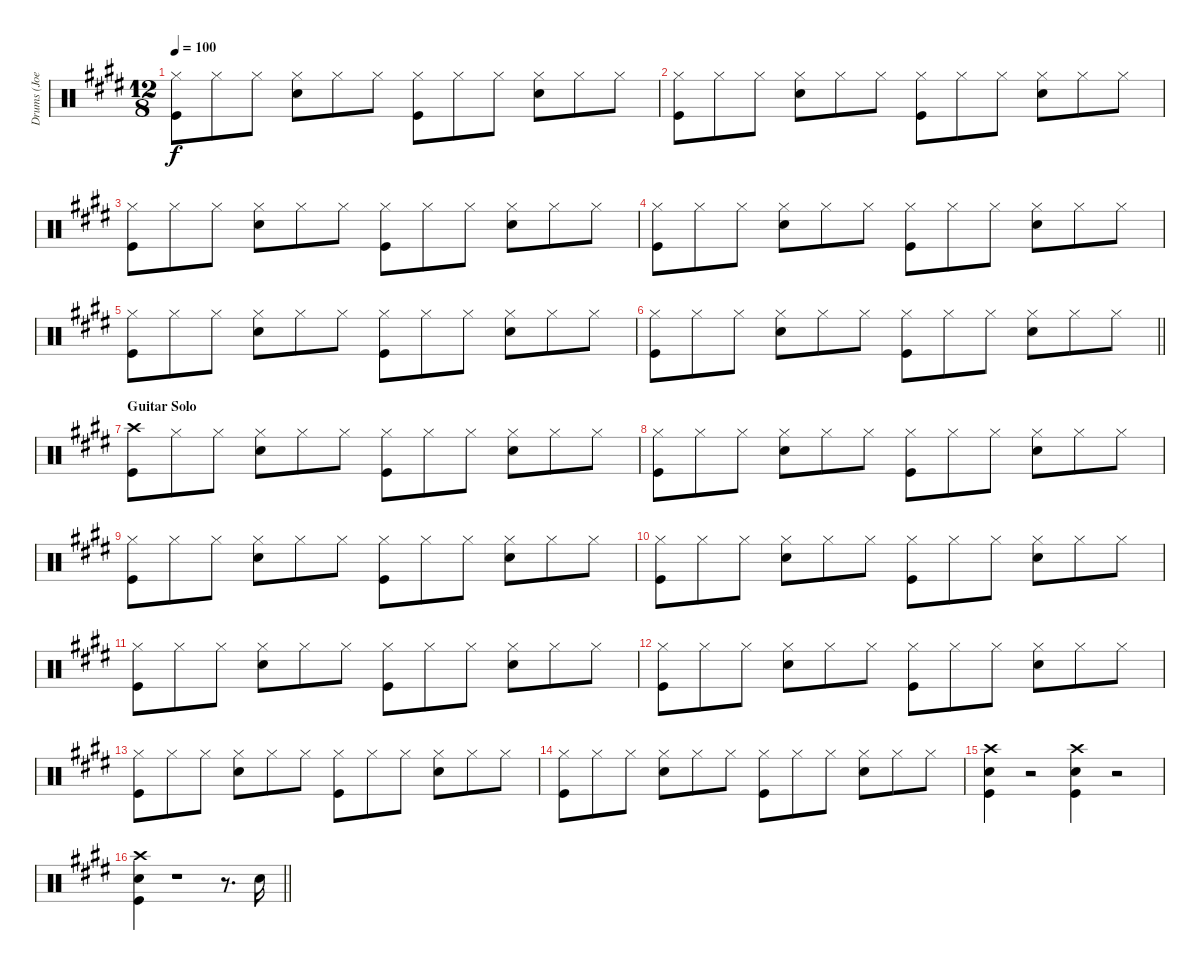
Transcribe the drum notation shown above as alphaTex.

\track ("Drums (Joey Kramer)" "Drums (Joe") {instrument percussion}
\staff {score}
\articulation defaults
\ts (12 8)
\tempo 100
\clef neutral
\ks c#minor
("Hi-Hat (closed)" "Kick (hit)").8{dy f} "Hi-Hat (closed)".8 "Hi-Hat (closed)".8 ("Hi-Hat (closed)" "Electric Snare (hit)").8 "Hi-Hat (closed)".8 "Hi-Hat (closed)".8 ("Hi-Hat (closed)" "Kick (hit)").8 "Hi-Hat (closed)".8 "Hi-Hat (closed)".8 ("Hi-Hat (closed)" "Electric Snare (hit)").8 "Hi-Hat (closed)".8 "Hi-Hat (closed)".8 |
("Hi-Hat (closed)" "Kick (hit)").8 "Hi-Hat (closed)".8 "Hi-Hat (closed)".8 ("Hi-Hat (closed)" "Electric Snare (hit)").8 "Hi-Hat (closed)".8 "Hi-Hat (closed)".8 ("Hi-Hat (closed)" "Kick (hit)").8 "Hi-Hat (closed)".8 "Hi-Hat (closed)".8 ("Hi-Hat (closed)" "Electric Snare (hit)").8 "Hi-Hat (closed)".8 "Hi-Hat (closed)".8 |
("Hi-Hat (closed)" "Kick (hit)").8 "Hi-Hat (closed)".8 "Hi-Hat (closed)".8 ("Hi-Hat (closed)" "Electric Snare (hit)").8 "Hi-Hat (closed)".8 "Hi-Hat (closed)".8 ("Hi-Hat (closed)" "Kick (hit)").8 "Hi-Hat (closed)".8 "Hi-Hat (closed)".8 ("Hi-Hat (closed)" "Electric Snare (hit)").8 "Hi-Hat (closed)".8 "Hi-Hat (closed)".8 |
("Hi-Hat (closed)" "Kick (hit)").8 "Hi-Hat (closed)".8 "Hi-Hat (closed)".8 ("Hi-Hat (closed)" "Electric Snare (hit)").8 "Hi-Hat (closed)".8 "Hi-Hat (closed)".8 ("Hi-Hat (closed)" "Kick (hit)").8 "Hi-Hat (closed)".8 "Hi-Hat (closed)".8 ("Hi-Hat (closed)" "Electric Snare (hit)").8 "Hi-Hat (closed)".8 "Hi-Hat (closed)".8 |
("Hi-Hat (closed)" "Kick (hit)").8 "Hi-Hat (closed)".8 "Hi-Hat (closed)".8 ("Hi-Hat (closed)" "Electric Snare (hit)").8 "Hi-Hat (closed)".8 "Hi-Hat (closed)".8 ("Hi-Hat (closed)" "Kick (hit)").8 "Hi-Hat (closed)".8 "Hi-Hat (closed)".8 ("Hi-Hat (closed)" "Electric Snare (hit)").8 "Hi-Hat (closed)".8 "Hi-Hat (closed)".8 |
\barLineRight lightlight
("Hi-Hat (closed)" "Kick (hit)").8 "Hi-Hat (closed)".8 "Hi-Hat (closed)".8 ("Hi-Hat (closed)" "Electric Snare (hit)").8 "Hi-Hat (closed)".8 "Hi-Hat (closed)".8 ("Hi-Hat (closed)" "Kick (hit)").8 "Hi-Hat (closed)".8 "Hi-Hat (closed)".8 ("Hi-Hat (closed)" "Electric Snare (hit)").8 "Hi-Hat (closed)".8 "Hi-Hat (closed)".8 |
\section ("" "Guitar Solo")
("Crash high (hit)" "Kick (hit)").8 "Hi-Hat (closed)".8 "Hi-Hat (closed)".8 ("Hi-Hat (closed)" "Electric Snare (hit)").8 "Hi-Hat (closed)".8 "Hi-Hat (closed)".8 ("Hi-Hat (closed)" "Kick (hit)").8 "Hi-Hat (closed)".8 "Hi-Hat (closed)".8 ("Hi-Hat (closed)" "Electric Snare (hit)").8 "Hi-Hat (closed)".8 "Hi-Hat (closed)".8 |
("Hi-Hat (closed)" "Kick (hit)").8 "Hi-Hat (closed)".8 "Hi-Hat (closed)".8 ("Hi-Hat (closed)" "Electric Snare (hit)").8 "Hi-Hat (closed)".8 "Hi-Hat (closed)".8 ("Hi-Hat (closed)" "Kick (hit)").8 "Hi-Hat (closed)".8 "Hi-Hat (closed)".8 ("Hi-Hat (closed)" "Electric Snare (hit)").8 "Hi-Hat (closed)".8 "Hi-Hat (closed)".8 |
("Hi-Hat (closed)" "Kick (hit)").8 "Hi-Hat (closed)".8 "Hi-Hat (closed)".8 ("Hi-Hat (closed)" "Electric Snare (hit)").8 "Hi-Hat (closed)".8 "Hi-Hat (closed)".8 ("Hi-Hat (closed)" "Kick (hit)").8 "Hi-Hat (closed)".8 "Hi-Hat (closed)".8 ("Hi-Hat (closed)" "Electric Snare (hit)").8 "Hi-Hat (closed)".8 "Hi-Hat (closed)".8 |
("Hi-Hat (closed)" "Kick (hit)").8 "Hi-Hat (closed)".8 "Hi-Hat (closed)".8 ("Hi-Hat (closed)" "Electric Snare (hit)").8 "Hi-Hat (closed)".8 "Hi-Hat (closed)".8 ("Hi-Hat (closed)" "Kick (hit)").8 "Hi-Hat (closed)".8 "Hi-Hat (closed)".8 ("Hi-Hat (closed)" "Electric Snare (hit)").8 "Hi-Hat (closed)".8 "Hi-Hat (closed)".8 |
("Hi-Hat (closed)" "Kick (hit)").8 "Hi-Hat (closed)".8 "Hi-Hat (closed)".8 ("Hi-Hat (closed)" "Electric Snare (hit)").8 "Hi-Hat (closed)".8 "Hi-Hat (closed)".8 ("Hi-Hat (closed)" "Kick (hit)").8 "Hi-Hat (closed)".8 "Hi-Hat (closed)".8 ("Hi-Hat (closed)" "Electric Snare (hit)").8 "Hi-Hat (closed)".8 "Hi-Hat (closed)".8 |
("Hi-Hat (closed)" "Kick (hit)").8 "Hi-Hat (closed)".8 "Hi-Hat (closed)".8 ("Hi-Hat (closed)" "Electric Snare (hit)").8 "Hi-Hat (closed)".8 "Hi-Hat (closed)".8 ("Hi-Hat (closed)" "Kick (hit)").8 "Hi-Hat (closed)".8 "Hi-Hat (closed)".8 ("Hi-Hat (closed)" "Electric Snare (hit)").8 "Hi-Hat (closed)".8 "Hi-Hat (closed)".8 |
("Hi-Hat (closed)" "Kick (hit)").8 "Hi-Hat (closed)".8 "Hi-Hat (closed)".8 ("Hi-Hat (closed)" "Electric Snare (hit)").8 "Hi-Hat (closed)".8 "Hi-Hat (closed)".8 ("Hi-Hat (closed)" "Kick (hit)").8 "Hi-Hat (closed)".8 "Hi-Hat (closed)".8 ("Hi-Hat (closed)" "Electric Snare (hit)").8 "Hi-Hat (closed)".8 "Hi-Hat (closed)".8 |
("Hi-Hat (closed)" "Kick (hit)").8 "Hi-Hat (closed)".8 "Hi-Hat (closed)".8 ("Hi-Hat (closed)" "Electric Snare (hit)").8 "Hi-Hat (closed)".8 "Hi-Hat (closed)".8 ("Hi-Hat (closed)" "Kick (hit)").8 "Hi-Hat (closed)".8 "Hi-Hat (closed)".8 ("Hi-Hat (closed)" "Electric Snare (hit)").8 "Hi-Hat (closed)".8 "Hi-Hat (closed)".8 |
("Crash high (hit)" "Electric Snare (hit)" "Kick (hit)").4 r.2 ("Crash high (hit)" "Electric Snare (hit)" "Kick (hit)").4 r.2 |
\barLineRight lightlight
("Crash high (hit)" "Electric Snare (hit)" "Kick (hit)").4 r.1 r.8{d} "Electric Snare (hit)".16
